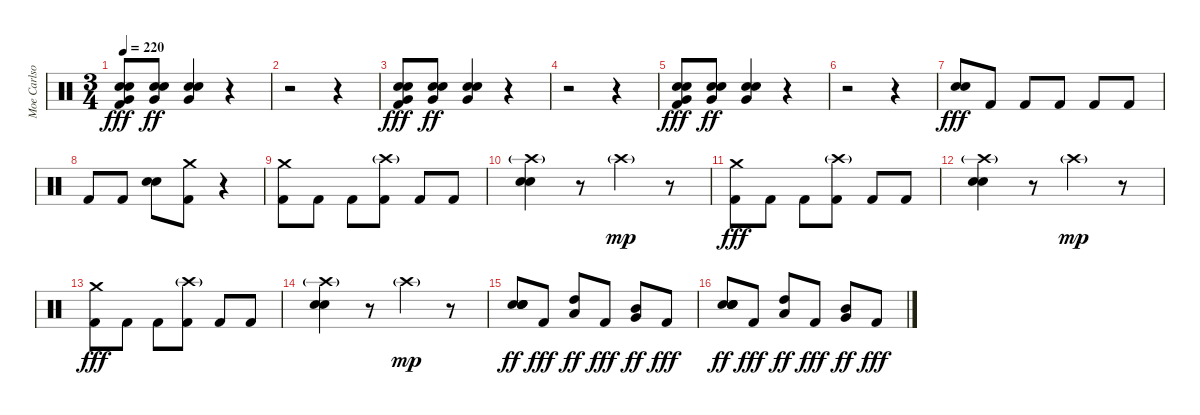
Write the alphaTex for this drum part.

\track ("Moe Carlson" "Moe Carlso") {instrument percussion}
\staff {score}
\articulation defaults
\ts (3 4)
\tempo 220
\clef neutral
\ks c
("Snare (hit) 2" "Electric Snare (hit)" "Very Low Tom (hit)" "Kick (hit) 2").8{dy fff} ("Snare (hit) 2" "Electric Snare (hit)" "Very Low Tom (hit)").8{dy ff} ("Snare (hit) 2" "Electric Snare (hit)" "Very Low Tom (hit)").4 r.4 |
r.2 r.4 |
("Snare (hit) 2" "Electric Snare (hit)" "Very Low Tom (hit)" "Kick (hit) 2").8{dy fff} ("Snare (hit) 2" "Electric Snare (hit)" "Very Low Tom (hit)").8{dy ff} ("Snare (hit) 2" "Electric Snare (hit)" "Very Low Tom (hit)").4 r.4 |
r.2 r.4 |
("Snare (hit) 2" "Electric Snare (hit)" "Very Low Tom (hit)" "Kick (hit) 2").8{dy fff} ("Snare (hit) 2" "Electric Snare (hit)" "Very Low Tom (hit)").8{dy ff} ("Snare (hit) 2" "Electric Snare (hit)" "Very Low Tom (hit)").4 r.4 |
r.2 r.4 |
("Snare (hit) 2" "Electric Snare (hit)").8{dy fff} "Kick (hit) 2".8 "Kick (hit) 2".8 "Kick (hit) 2".8 "Kick (hit) 2".8 "Kick (hit) 2".8 |
"Kick (hit) 2".8 "Kick (hit) 2".8 ("Snare (hit) 2" "Electric Snare (hit)").8 ("Crash medium (hit)" "Kick (hit) 2").8 r.4 |
("Crash medium (hit)" "Kick (hit) 2").8 "Kick (hit) 2".8 "Kick (hit) 2".8 ("Crash high (hit)"{g} "Kick (hit) 2").8 "Kick (hit) 2".8 "Kick (hit) 2".8 |
("Crash high (hit)"{g} "Snare (hit) 2" "Electric Snare (hit)").4 r.8 "Crash high (hit)"{g}.4{dy mp} r.8 |
("Crash medium (hit)" "Kick (hit) 2").8{dy fff} "Kick (hit) 2".8 "Kick (hit) 2".8 ("Crash high (hit)"{g} "Kick (hit) 2").8 "Kick (hit) 2".8 "Kick (hit) 2".8 |
("Crash high (hit)"{g} "Snare (hit) 2" "Electric Snare (hit)").4 r.8 "Crash high (hit)"{g}.4{dy mp} r.8 |
("Crash medium (hit)" "Kick (hit) 2").8{dy fff} "Kick (hit) 2".8 "Kick (hit) 2".8 ("Crash high (hit)"{g} "Kick (hit) 2").8 "Kick (hit) 2".8 "Kick (hit) 2".8 |
("Crash high (hit)"{g} "Snare (hit) 2" "Electric Snare (hit)").4 r.8 "Crash high (hit)"{g}.4{dy mp} r.8 |
("Snare (hit) 2" "Snare (hit) 2" "Electric Snare (hit)" "Electric Snare (hit)").8{dy ff} "Kick (hit) 2".8{dy fff} ("High Tom (hit)" "Low Tom (hit)").8{dy ff} "Kick (hit) 2".8{dy fff} ("Mid Tom (hit)" "Very Low Tom (hit)").8{dy ff} "Kick (hit) 2".8{dy fff} |
("Snare (hit) 2" "Snare (hit) 2" "Electric Snare (hit)" "Electric Snare (hit)").8{dy ff} "Kick (hit) 2".8{dy fff} ("High Tom (hit)" "Low Tom (hit)").8{dy ff} "Kick (hit) 2".8{dy fff} ("Mid Tom (hit)" "Very Low Tom (hit)").8{dy ff} "Kick (hit) 2".8{dy fff}
